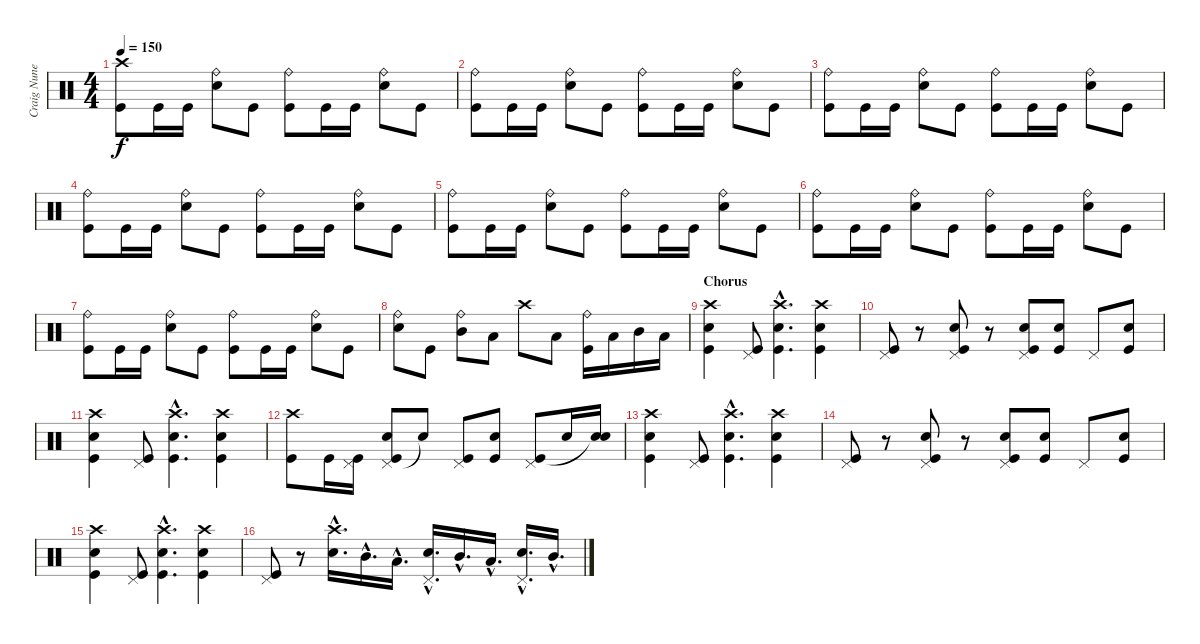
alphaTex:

\track ("Craig Nunenmacher" "Craig Nune") {instrument percussion}
\staff {score}
\articulation defaults
\ts (4 4)
\tempo 150
\clef neutral
\ks c
("Crash high (hit)" "Kick (hit)").8{dy f} "Kick (hit)".16 "Kick (hit)".16 ("Ride (bell)" "Snare (hit) 2").8 "Kick (hit)".8 ("Ride (bell)" "Kick (hit)").8 "Kick (hit)".16 "Kick (hit)".16 ("Ride (bell)" "Snare (hit) 2").8 "Kick (hit)".8 |
("Ride (bell)" "Kick (hit)").8 "Kick (hit)".16 "Kick (hit)".16 ("Ride (bell)" "Snare (hit) 2").8 "Kick (hit)".8 ("Ride (bell)" "Kick (hit)").8 "Kick (hit)".16 "Kick (hit)".16 ("Ride (bell)" "Snare (hit) 2").8 "Kick (hit)".8 |
("Ride (bell)" "Kick (hit)").8 "Kick (hit)".16 "Kick (hit)".16 ("Ride (bell)" "Snare (hit) 2").8 "Kick (hit)".8 ("Ride (bell)" "Kick (hit)").8 "Kick (hit)".16 "Kick (hit)".16 ("Ride (bell)" "Snare (hit) 2").8 "Kick (hit)".8 |
("Ride (bell)" "Kick (hit)").8 "Kick (hit)".16 "Kick (hit)".16 ("Ride (bell)" "Snare (hit) 2").8 "Kick (hit)".8 ("Ride (bell)" "Kick (hit)").8 "Kick (hit)".16 "Kick (hit)".16 ("Ride (bell)" "Snare (hit) 2").8 "Kick (hit)".8 |
("Ride (bell)" "Kick (hit)").8 "Kick (hit)".16 "Kick (hit)".16 ("Ride (bell)" "Snare (hit) 2").8 "Kick (hit)".8 ("Ride (bell)" "Kick (hit)").8 "Kick (hit)".16 "Kick (hit)".16 ("Ride (bell)" "Snare (hit) 2").8 "Kick (hit)".8 |
("Ride (bell)" "Kick (hit)").8 "Kick (hit)".16 "Kick (hit)".16 ("Ride (bell)" "Snare (hit) 2").8 "Kick (hit)".8 ("Ride (bell)" "Kick (hit)").8 "Kick (hit)".16 "Kick (hit)".16 ("Ride (bell)" "Snare (hit) 2").8 "Kick (hit)".8 |
("Ride (bell)" "Kick (hit)").8 "Kick (hit)".16 "Kick (hit)".16 ("Ride (bell)" "Snare (hit) 2").8 "Kick (hit)".8 ("Ride (bell)" "Kick (hit)").8 "Kick (hit)".16 "Kick (hit)".16 ("Ride (bell)" "Snare (hit) 2").8 "Kick (hit)".8 |
("Ride (bell)" "Snare (hit) 2").8 "Kick (hit)".8 ("Ride (bell)" "Mid Tom (hit)").8 "Low Tom (hit)".8 "Crash high (hit)".8 "Low Tom (hit)".8 ("Ride (bell)" "Kick (hit)").16 "Low Tom (hit)".16 "Mid Tom (hit)".16 "Low Tom (hit)".16 |
\section ("" "Chorus")
("Crash high (hit)" "Snare (hit) 2" "Kick (hit)").4 ("Pedal Hi-Hat (hit)" "Kick (hit)").8 ("Crash high (hit)"{hac} "Snare (hit) 2"{hac} "Kick (hit)"{hac}).4{d} ("Crash high (hit)" "Snare (hit) 2" "Kick (hit)").4 |
("Pedal Hi-Hat (hit)" "Kick (hit)").8 r.8 ("Pedal Hi-Hat (hit)" "Snare (hit) 2" "Kick (hit)").8 r.8 ("Pedal Hi-Hat (hit)" "Snare (hit) 2" "Kick (hit)").8 ("Snare (hit) 2" "Kick (hit)").8 "Pedal Hi-Hat (hit)".8 ("Snare (hit) 2" "Kick (hit)").8 |
("Crash high (hit)" "Snare (hit) 2" "Kick (hit)").4 ("Pedal Hi-Hat (hit)" "Kick (hit)").8 ("Crash high (hit)"{hac} "Snare (hit) 2"{hac} "Kick (hit)"{hac}).4{d} ("Crash high (hit)" "Snare (hit) 2" "Kick (hit)").4 |
("Crash high (hit)" "Kick (hit)").8 "Kick (hit)".16 ("Pedal Hi-Hat (hit)" "Kick (hit)").16 ("Pedal Hi-Hat (hit)" "Snare (hit) 2" "Kick (hit)").8 "Snare (hit)"{t}.8 ("Pedal Hi-Hat (hit)" "Kick (hit)").8 ("Snare (hit) 2" "Kick (hit)").8 ("Pedal Hi-Hat (hit)" "Kick (hit)").8 "Snare (hit) 2".16 ("Snare (hit) 2" "Snare (hit)"{t}).16 |
("Crash high (hit)" "Snare (hit) 2" "Kick (hit)").4 ("Pedal Hi-Hat (hit)" "Kick (hit)").8 ("Crash high (hit)"{hac} "Snare (hit) 2"{hac} "Kick (hit)"{hac}).4{d} ("Crash high (hit)" "Snare (hit) 2" "Kick (hit)").4 |
("Pedal Hi-Hat (hit)" "Kick (hit)").8 r.8 ("Pedal Hi-Hat (hit)" "Snare (hit) 2" "Kick (hit)").8 r.8 ("Pedal Hi-Hat (hit)" "Snare (hit) 2" "Kick (hit)").8 ("Snare (hit) 2" "Kick (hit)").8 "Pedal Hi-Hat (hit)".8 ("Snare (hit) 2" "Kick (hit)").8 |
("Crash high (hit)" "Snare (hit) 2" "Kick (hit)").4 ("Pedal Hi-Hat (hit)" "Kick (hit)").8 ("Crash high (hit)"{hac} "Snare (hit) 2"{hac} "Kick (hit)"{hac}).4{d} ("Crash high (hit)" "Snare (hit) 2" "Kick (hit)").4 |
("Pedal Hi-Hat (hit)" "Kick (hit)").8 r.8 ("Crash high (hit)"{hac} "Snare (hit) 2"{hac}).16{d} "Mid Tom (hit)"{hac}.16{d} "Low Tom (hit)"{hac}.16{d} ("Pedal Hi-Hat (hit)"{hac} "Snare (hit) 2"{hac}).16{d} "Mid Tom (hit)"{hac}.16{d} "Low Tom (hit)"{hac}.16{d} ("Pedal Hi-Hat (hit)"{hac} "Snare (hit) 2"{hac}).16{d} "Mid Tom (hit)"{hac}.16{d}
